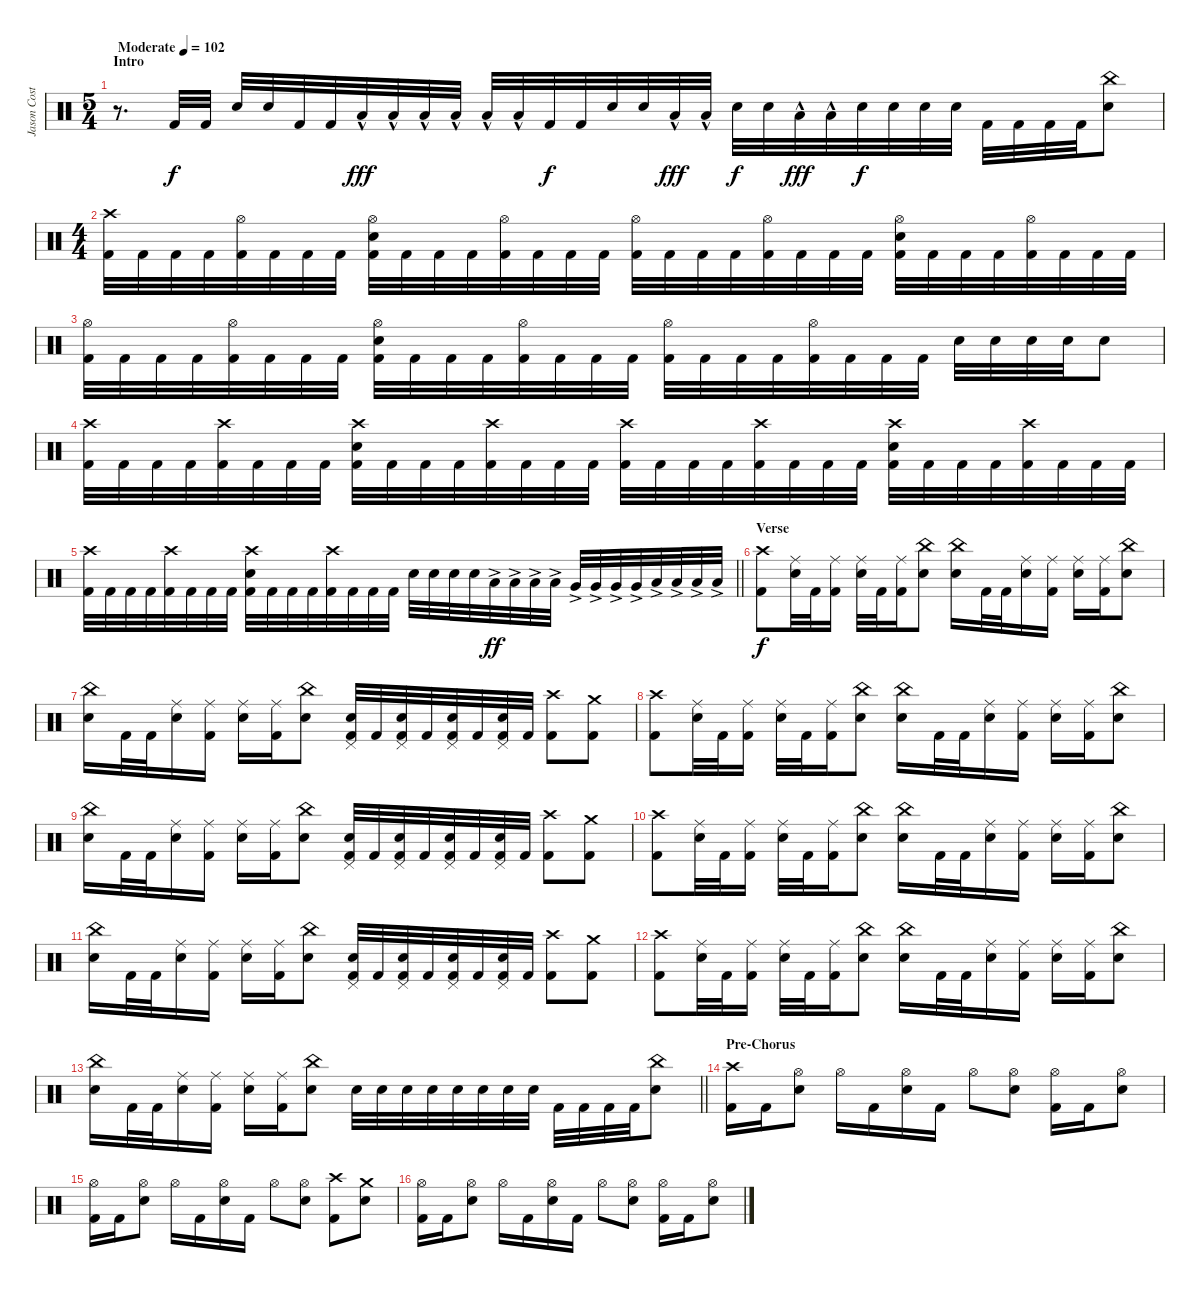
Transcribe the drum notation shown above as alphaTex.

\track ("Jason Costa" "Jason Cost") {instrument percussion}
\staff {score}
\articulation defaults
\ts (5 4)
\section ("" "Intro")
\tempo (102 "Moderate")
\clef neutral
\ks c
r.8{d dy f} "Kick (hit) 2".32 "Kick (hit) 2".32 "Snare (hit) 2".32 "Snare (hit) 2".32 "Kick (hit) 2".32 "Kick (hit) 2".32 "Low Tom (hit)"{hac}.32{dy fff} "Low Tom (hit)"{hac}.32 "Low Tom (hit)"{hac}.32 "Low Tom (hit)"{hac}.32 "Low Tom (hit)"{hac}.32 "Low Tom (hit)"{hac}.32 "Kick (hit) 2".32{dy f} "Kick (hit) 2".32 "Snare (hit) 2".32 "Snare (hit) 2".32 "Low Tom (hit)"{hac}.32{dy fff} "Low Tom (hit)"{hac}.32 "Snare (hit) 2".32{dy f} "Snare (hit) 2".32 "Low Tom (hit)"{hac}.32{dy fff} "Low Tom (hit)"{hac}.32 "Snare (hit) 2".32{dy f} "Snare (hit) 2".32 "Snare (hit) 2".32 "Snare (hit) 2".32 "Kick (hit) 2".32 "Kick (hit) 2".32 "Kick (hit) 2".32 "Kick (hit) 2".32 ("China (hit)" "Snare (hit) 2").8 |
\ts (4 4)
("Crash high (hit)" "Kick (hit) 2").32 "Kick (hit) 2".32 "Kick (hit) 2".32 "Kick (hit) 2".32 ("Hi-Hat (open)" "Kick (hit) 2").32 "Kick (hit) 2".32 "Kick (hit) 2".32 "Kick (hit) 2".32 ("Snare (hit) 2" "Hi-Hat (open)" "Kick (hit) 2").32 "Kick (hit) 2".32 "Kick (hit) 2".32 "Kick (hit) 2".32 ("Hi-Hat (open)" "Kick (hit) 2").32 "Kick (hit) 2".32 "Kick (hit) 2".32 "Kick (hit) 2".32 ("Hi-Hat (open)" "Kick (hit) 2").32 "Kick (hit) 2".32 "Kick (hit) 2".32 "Kick (hit) 2".32 ("Hi-Hat (open)" "Kick (hit) 2").32 "Kick (hit) 2".32 "Kick (hit) 2".32 "Kick (hit) 2".32 ("Snare (hit) 2" "Hi-Hat (open)" "Kick (hit) 2").32 "Kick (hit) 2".32 "Kick (hit) 2".32 "Kick (hit) 2".32 ("Hi-Hat (open)" "Kick (hit) 2").32 "Kick (hit) 2".32 "Kick (hit) 2".32 "Kick (hit) 2".32 |
("Hi-Hat (open)" "Kick (hit) 2").32 "Kick (hit) 2".32 "Kick (hit) 2".32 "Kick (hit) 2".32 ("Hi-Hat (open)" "Kick (hit) 2").32 "Kick (hit) 2".32 "Kick (hit) 2".32 "Kick (hit) 2".32 ("Snare (hit) 2" "Hi-Hat (open)" "Kick (hit) 2").32 "Kick (hit) 2".32 "Kick (hit) 2".32 "Kick (hit) 2".32 ("Hi-Hat (open)" "Kick (hit) 2").32 "Kick (hit) 2".32 "Kick (hit) 2".32 "Kick (hit) 2".32 ("Hi-Hat (open)" "Kick (hit) 2").32 "Kick (hit) 2".32 "Kick (hit) 2".32 "Kick (hit) 2".32 ("Hi-Hat (open)" "Kick (hit) 2").32 "Kick (hit) 2".32 "Kick (hit) 2".32 "Kick (hit) 2".32 "Snare (hit) 2".32 "Snare (hit) 2".32 "Snare (hit) 2".32 "Snare (hit) 2".32 "Snare (hit) 2".8 |
("Crash high (hit)" "Kick (hit) 2").32 "Kick (hit) 2".32 "Kick (hit) 2".32 "Kick (hit) 2".32 ("Crash high (hit)" "Kick (hit) 2").32 "Kick (hit) 2".32 "Kick (hit) 2".32 "Kick (hit) 2".32 ("Crash high (hit)" "Snare (hit) 2" "Kick (hit) 2").32 "Kick (hit) 2".32 "Kick (hit) 2".32 "Kick (hit) 2".32 ("Crash high (hit)" "Kick (hit) 2").32 "Kick (hit) 2".32 "Kick (hit) 2".32 "Kick (hit) 2".32 ("Crash high (hit)" "Kick (hit) 2").32 "Kick (hit) 2".32 "Kick (hit) 2".32 "Kick (hit) 2".32 ("Crash high (hit)" "Kick (hit) 2").32 "Kick (hit) 2".32 "Kick (hit) 2".32 "Kick (hit) 2".32 ("Crash high (hit)" "Snare (hit) 2" "Kick (hit) 2").32 "Kick (hit) 2".32 "Kick (hit) 2".32 "Kick (hit) 2".32 ("Crash high (hit)" "Kick (hit) 2").32 "Kick (hit) 2".32 "Kick (hit) 2".32 "Kick (hit) 2".32 |
\barLineRight lightlight
("Crash high (hit)" "Kick (hit) 2").32 "Kick (hit) 2".32 "Kick (hit) 2".32 "Kick (hit) 2".32 ("Crash high (hit)" "Kick (hit) 2").32 "Kick (hit) 2".32 "Kick (hit) 2".32 "Kick (hit) 2".32 ("Crash high (hit)" "Snare (hit) 2" "Kick (hit) 2").32 "Kick (hit) 2".32 "Kick (hit) 2".32 "Kick (hit) 2".32 ("Crash high (hit)" "Kick (hit) 2").32 "Kick (hit) 2".32 "Kick (hit) 2".32 "Kick (hit) 2".32 "Snare (hit) 2".32 "Snare (hit) 2".32 "Snare (hit) 2".32 "Snare (hit) 2".32 "Low Tom (hit)"{ac}.32{dy ff} "Low Tom (hit)"{ac}.32 "Low Tom (hit)"{ac}.32 "Low Tom (hit)"{ac}.32 "Very Low Tom (hit)"{ac}.32 "Very Low Tom (hit)"{ac}.32 "Very Low Tom (hit)"{ac}.32 "Very Low Tom (hit)"{ac}.32 "Low Floor Tom (hit)"{ac}.32 "Low Floor Tom (hit)"{ac}.32 "Low Floor Tom (hit)"{ac}.32 "Low Floor Tom (hit)"{ac}.32 |
\section ("" "Verse")
("Crash high (hit)" "Kick (hit) 2").8{dy f} ("Snare (hit) 2" "Ride (middle)").32 "Kick (hit) 2".32 ("Ride (middle)" "Kick (hit) 2").16 ("Snare (hit) 2" "Ride (middle)").32 "Kick (hit) 2".32 ("Ride (middle)" "Kick (hit) 2").16 ("China (hit)" "Snare (hit) 2").8 ("China (hit)" "Snare (hit) 2").16 "Kick (hit) 2".32 "Kick (hit) 2".32 ("Snare (hit) 2" "Ride (middle)").16 ("Ride (middle)" "Kick (hit) 2").16 ("Snare (hit) 2" "Ride (middle)").16 ("Ride (middle)" "Kick (hit) 2").16 ("China (hit)" "Snare (hit) 2").8 |
("China (hit)" "Snare (hit) 2").16 "Kick (hit) 2".32 "Kick (hit) 2".32 ("Snare (hit) 2" "Ride (middle)").16 ("Ride (middle)" "Kick (hit) 2").16 ("Snare (hit) 2" "Ride (middle)").16 ("Ride (middle)" "Kick (hit) 2").16 ("China (hit)" "Snare (hit) 2").8 ("Snare (hit) 2" "Pedal Hi-Hat (hit)" "Kick (hit) 2").32 "Kick (hit) 2".32 ("Snare (hit) 2" "Pedal Hi-Hat (hit)" "Kick (hit) 2").32 "Kick (hit) 2".32 ("Snare (hit) 2" "Pedal Hi-Hat (hit)" "Kick (hit) 2").32 "Kick (hit) 2".32 ("Snare (hit) 2" "Pedal Hi-Hat (hit)" "Kick (hit) 2").32 "Kick (hit) 2".32 ("Crash high (hit)" "Kick (hit) 2").8 ("Crash medium (hit)" "Kick (hit) 2").8 |
("Crash high (hit)" "Kick (hit) 2").8 ("Snare (hit) 2" "Ride (middle)").32 "Kick (hit) 2".32 ("Ride (middle)" "Kick (hit) 2").16 ("Snare (hit) 2" "Ride (middle)").32 "Kick (hit) 2".32 ("Ride (middle)" "Kick (hit) 2").16 ("China (hit)" "Snare (hit) 2").8 ("China (hit)" "Snare (hit) 2").16 "Kick (hit) 2".32 "Kick (hit) 2".32 ("Snare (hit) 2" "Ride (middle)").16 ("Ride (middle)" "Kick (hit) 2").16 ("Snare (hit) 2" "Ride (middle)").16 ("Ride (middle)" "Kick (hit) 2").16 ("China (hit)" "Snare (hit) 2").8 |
("China (hit)" "Snare (hit) 2").16 "Kick (hit) 2".32 "Kick (hit) 2".32 ("Snare (hit) 2" "Ride (middle)").16 ("Ride (middle)" "Kick (hit) 2").16 ("Snare (hit) 2" "Ride (middle)").16 ("Ride (middle)" "Kick (hit) 2").16 ("China (hit)" "Snare (hit) 2").8 ("Snare (hit) 2" "Pedal Hi-Hat (hit)" "Kick (hit) 2").32 "Kick (hit) 2".32 ("Snare (hit) 2" "Pedal Hi-Hat (hit)" "Kick (hit) 2").32 "Kick (hit) 2".32 ("Snare (hit) 2" "Pedal Hi-Hat (hit)" "Kick (hit) 2").32 "Kick (hit) 2".32 ("Snare (hit) 2" "Pedal Hi-Hat (hit)" "Kick (hit) 2").32 "Kick (hit) 2".32 ("Crash high (hit)" "Kick (hit) 2").8 ("Crash medium (hit)" "Kick (hit) 2").8 |
("Crash high (hit)" "Kick (hit) 2").8 ("Snare (hit) 2" "Ride (middle)").32 "Kick (hit) 2".32 ("Ride (middle)" "Kick (hit) 2").16 ("Snare (hit) 2" "Ride (middle)").32 "Kick (hit) 2".32 ("Ride (middle)" "Kick (hit) 2").16 ("China (hit)" "Snare (hit) 2").8 ("China (hit)" "Snare (hit) 2").16 "Kick (hit) 2".32 "Kick (hit) 2".32 ("Snare (hit) 2" "Ride (middle)").16 ("Ride (middle)" "Kick (hit) 2").16 ("Snare (hit) 2" "Ride (middle)").16 ("Ride (middle)" "Kick (hit) 2").16 ("China (hit)" "Snare (hit) 2").8 |
("China (hit)" "Snare (hit) 2").16 "Kick (hit) 2".32 "Kick (hit) 2".32 ("Snare (hit) 2" "Ride (middle)").16 ("Ride (middle)" "Kick (hit) 2").16 ("Snare (hit) 2" "Ride (middle)").16 ("Ride (middle)" "Kick (hit) 2").16 ("China (hit)" "Snare (hit) 2").8 ("Snare (hit) 2" "Pedal Hi-Hat (hit)" "Kick (hit) 2").32 "Kick (hit) 2".32 ("Snare (hit) 2" "Pedal Hi-Hat (hit)" "Kick (hit) 2").32 "Kick (hit) 2".32 ("Snare (hit) 2" "Pedal Hi-Hat (hit)" "Kick (hit) 2").32 "Kick (hit) 2".32 ("Snare (hit) 2" "Pedal Hi-Hat (hit)" "Kick (hit) 2").32 "Kick (hit) 2".32 ("Crash high (hit)" "Kick (hit) 2").8 ("Crash medium (hit)" "Kick (hit) 2").8 |
("Crash high (hit)" "Kick (hit) 2").8 ("Snare (hit) 2" "Ride (middle)").32 "Kick (hit) 2".32 ("Ride (middle)" "Kick (hit) 2").16 ("Snare (hit) 2" "Ride (middle)").32 "Kick (hit) 2".32 ("Ride (middle)" "Kick (hit) 2").16 ("China (hit)" "Snare (hit) 2").8 ("China (hit)" "Snare (hit) 2").16 "Kick (hit) 2".32 "Kick (hit) 2".32 ("Snare (hit) 2" "Ride (middle)").16 ("Ride (middle)" "Kick (hit) 2").16 ("Snare (hit) 2" "Ride (middle)").16 ("Ride (middle)" "Kick (hit) 2").16 ("China (hit)" "Snare (hit) 2").8 |
\barLineRight lightlight
("China (hit)" "Snare (hit) 2").16 "Kick (hit) 2".32 "Kick (hit) 2".32 ("Snare (hit) 2" "Ride (middle)").16 ("Ride (middle)" "Kick (hit) 2").16 ("Snare (hit) 2" "Ride (middle)").16 ("Ride (middle)" "Kick (hit) 2").16 ("China (hit)" "Snare (hit) 2").8 "Snare (hit) 2".32 "Snare (hit) 2".32 "Snare (hit) 2".32 "Snare (hit) 2".32 "Snare (hit) 2".32 "Snare (hit) 2".32 "Snare (hit) 2".32 "Snare (hit) 2".32 "Kick (hit) 2".32 "Kick (hit) 2".32 "Kick (hit) 2".32 "Kick (hit) 2".32 ("China (hit)" "Snare (hit) 2").8 |
\section ("" "Pre-Chorus")
("Crash high (hit)" "Kick (hit) 2").16 "Kick (hit) 2".16 ("Snare (hit) 2" "Hi-Hat (open)").8 "Hi-Hat (open)".16 "Kick (hit) 2".16 ("Snare (hit) 2" "Hi-Hat (open)").16 "Kick (hit) 2".16 "Hi-Hat (open)".8 ("Snare (hit) 2" "Hi-Hat (open)").8 ("Hi-Hat (open)" "Kick (hit) 2").16 "Kick (hit) 2".16 ("Snare (hit) 2" "Hi-Hat (open)").8 |
("Hi-Hat (open)" "Kick (hit) 2").16 "Kick (hit) 2".16 ("Snare (hit) 2" "Hi-Hat (open)").8 "Hi-Hat (open)".16 "Kick (hit) 2".16 ("Snare (hit) 2" "Hi-Hat (open)").16 "Kick (hit) 2".16 "Hi-Hat (open)".8 ("Snare (hit) 2" "Hi-Hat (open)").8 ("Crash high (hit)" "Kick (hit) 2").8 ("Crash medium (hit)" "Snare (hit) 2").8 |
("Hi-Hat (open)" "Kick (hit) 2").16 "Kick (hit) 2".16 ("Snare (hit) 2" "Hi-Hat (open)").8 "Hi-Hat (open)".16 "Kick (hit) 2".16 ("Snare (hit) 2" "Hi-Hat (open)").16 "Kick (hit) 2".16 "Hi-Hat (open)".8 ("Snare (hit) 2" "Hi-Hat (open)").8 ("Hi-Hat (open)" "Kick (hit) 2").16 "Kick (hit) 2".16 ("Snare (hit) 2" "Hi-Hat (open)").8
